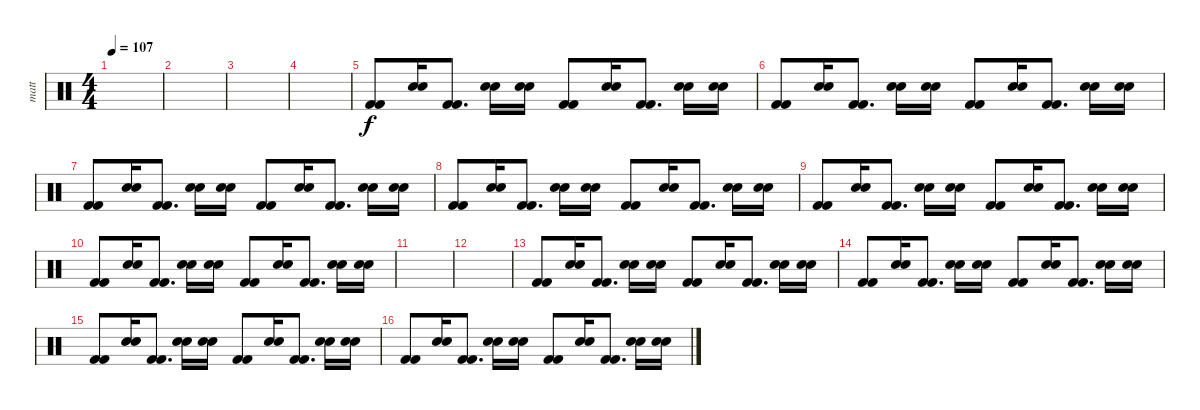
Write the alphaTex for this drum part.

\track ("matt" "matt") {instrument percussion}
\staff {score}
\articulation defaults
\ts (4 4)
\tempo 107
\clef neutral
\ks c
|
|
|
|
("Kick (hit) 2" "Kick (hit) 2").8 ("Snare (hit) 2" "Snare (hit) 2").16 ("Kick (hit) 2" "Kick (hit) 2").8{d} ("Snare (hit) 2" "Snare (hit) 2").16 ("Snare (hit) 2" "Snare (hit) 2").16 ("Kick (hit) 2" "Kick (hit) 2").8 ("Snare (hit) 2" "Snare (hit) 2").16 ("Kick (hit) 2" "Kick (hit) 2").8{d} ("Snare (hit) 2" "Snare (hit) 2").16 ("Snare (hit) 2" "Snare (hit) 2").16 |
("Kick (hit) 2" "Kick (hit) 2").8 ("Snare (hit) 2" "Snare (hit) 2").16 ("Kick (hit) 2" "Kick (hit) 2").8{d} ("Snare (hit) 2" "Snare (hit) 2").16 ("Snare (hit) 2" "Snare (hit) 2").16 ("Kick (hit) 2" "Kick (hit) 2").8 ("Snare (hit) 2" "Snare (hit) 2").16 ("Kick (hit) 2" "Kick (hit) 2").8{d} ("Snare (hit) 2" "Snare (hit) 2").16 ("Snare (hit) 2" "Snare (hit) 2").16 |
("Kick (hit) 2" "Kick (hit) 2").8 ("Snare (hit) 2" "Snare (hit) 2").16 ("Kick (hit) 2" "Kick (hit) 2").8{d} ("Snare (hit) 2" "Snare (hit) 2").16 ("Snare (hit) 2" "Snare (hit) 2").16 ("Kick (hit) 2" "Kick (hit) 2").8 ("Snare (hit) 2" "Snare (hit) 2").16 ("Kick (hit) 2" "Kick (hit) 2").8{d} ("Snare (hit) 2" "Snare (hit) 2").16 ("Snare (hit) 2" "Snare (hit) 2").16 |
("Kick (hit) 2" "Kick (hit) 2").8 ("Snare (hit) 2" "Snare (hit) 2").16 ("Kick (hit) 2" "Kick (hit) 2").8{d} ("Snare (hit) 2" "Snare (hit) 2").16 ("Snare (hit) 2" "Snare (hit) 2").16 ("Kick (hit) 2" "Kick (hit) 2").8 ("Snare (hit) 2" "Snare (hit) 2").16 ("Kick (hit) 2" "Kick (hit) 2").8{d} ("Snare (hit) 2" "Snare (hit) 2").16 ("Snare (hit) 2" "Snare (hit) 2").16 |
("Kick (hit) 2" "Kick (hit) 2").8 ("Snare (hit) 2" "Snare (hit) 2").16 ("Kick (hit) 2" "Kick (hit) 2").8{d} ("Snare (hit) 2" "Snare (hit) 2").16 ("Snare (hit) 2" "Snare (hit) 2").16 ("Kick (hit) 2" "Kick (hit) 2").8 ("Snare (hit) 2" "Snare (hit) 2").16 ("Kick (hit) 2" "Kick (hit) 2").8{d} ("Snare (hit) 2" "Snare (hit) 2").16 ("Snare (hit) 2" "Snare (hit) 2").16 |
("Kick (hit) 2" "Kick (hit) 2").8 ("Snare (hit) 2" "Snare (hit) 2").16 ("Kick (hit) 2" "Kick (hit) 2").8{d} ("Snare (hit) 2" "Snare (hit) 2").16 ("Snare (hit) 2" "Snare (hit) 2").16 ("Kick (hit) 2" "Kick (hit) 2").8 ("Snare (hit) 2" "Snare (hit) 2").16 ("Kick (hit) 2" "Kick (hit) 2").8{d} ("Snare (hit) 2" "Snare (hit) 2").16 ("Snare (hit) 2" "Snare (hit) 2").16 |
|
|
("Kick (hit) 2" "Kick (hit) 2").8 ("Snare (hit) 2" "Snare (hit) 2").16 ("Kick (hit) 2" "Kick (hit) 2").8{d} ("Snare (hit) 2" "Snare (hit) 2").16 ("Snare (hit) 2" "Snare (hit) 2").16 ("Kick (hit) 2" "Kick (hit) 2").8 ("Snare (hit) 2" "Snare (hit) 2").16 ("Kick (hit) 2" "Kick (hit) 2").8{d} ("Snare (hit) 2" "Snare (hit) 2").16 ("Snare (hit) 2" "Snare (hit) 2").16 |
("Kick (hit) 2" "Kick (hit) 2").8 ("Snare (hit) 2" "Snare (hit) 2").16 ("Kick (hit) 2" "Kick (hit) 2").8{d} ("Snare (hit) 2" "Snare (hit) 2").16 ("Snare (hit) 2" "Snare (hit) 2").16 ("Kick (hit) 2" "Kick (hit) 2").8 ("Snare (hit) 2" "Snare (hit) 2").16 ("Kick (hit) 2" "Kick (hit) 2").8{d} ("Snare (hit) 2" "Snare (hit) 2").16 ("Snare (hit) 2" "Snare (hit) 2").16 |
("Kick (hit) 2" "Kick (hit) 2").8 ("Snare (hit) 2" "Snare (hit) 2").16 ("Kick (hit) 2" "Kick (hit) 2").8{d} ("Snare (hit) 2" "Snare (hit) 2").16 ("Snare (hit) 2" "Snare (hit) 2").16 ("Kick (hit) 2" "Kick (hit) 2").8 ("Snare (hit) 2" "Snare (hit) 2").16 ("Kick (hit) 2" "Kick (hit) 2").8{d} ("Snare (hit) 2" "Snare (hit) 2").16 ("Snare (hit) 2" "Snare (hit) 2").16 |
("Kick (hit) 2" "Kick (hit) 2").8 ("Snare (hit) 2" "Snare (hit) 2").16 ("Kick (hit) 2" "Kick (hit) 2").8{d} ("Snare (hit) 2" "Snare (hit) 2").16 ("Snare (hit) 2" "Snare (hit) 2").16 ("Kick (hit) 2" "Kick (hit) 2").8 ("Snare (hit) 2" "Snare (hit) 2").16 ("Kick (hit) 2" "Kick (hit) 2").8{d} ("Snare (hit) 2" "Snare (hit) 2").16 ("Snare (hit) 2" "Snare (hit) 2").16
